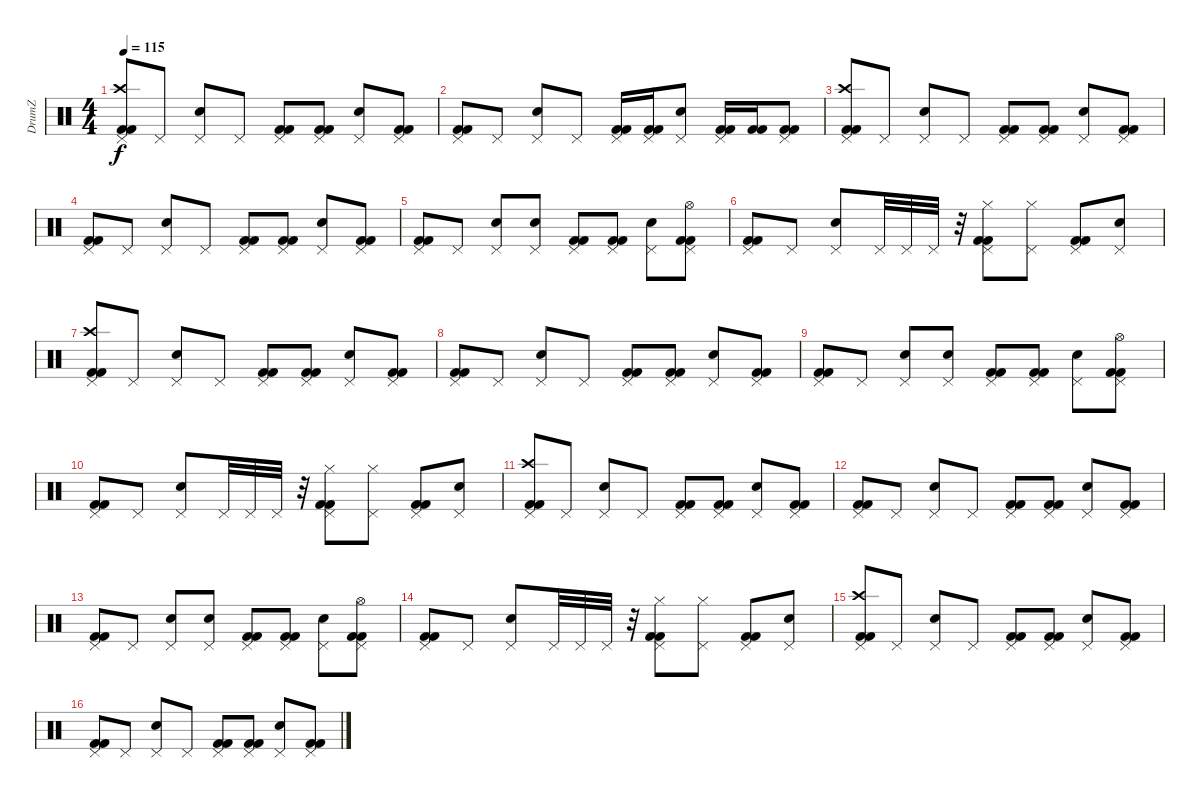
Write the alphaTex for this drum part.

\track ("DrumZ" "DrumZ") {instrument percussion}
\staff {score}
\articulation defaults
\ts (4 4)
\tempo 115
\clef neutral
\ks c
("Pedal Hi-Hat (hit)" "Crash high (hit)" "Kick (hit) 2" "Kick (hit) 2").8{dy f} "Pedal Hi-Hat (hit)".8 ("Pedal Hi-Hat (hit)" "Electric Snare (hit)").8 "Pedal Hi-Hat (hit)".8 ("Pedal Hi-Hat (hit)" "Kick (hit) 2" "Kick (hit) 2").8 ("Pedal Hi-Hat (hit)" "Kick (hit) 2" "Kick (hit) 2").8 ("Pedal Hi-Hat (hit)" "Electric Snare (hit)").8 ("Pedal Hi-Hat (hit)" "Kick (hit) 2" "Kick (hit) 2").8 |
("Pedal Hi-Hat (hit)" "Kick (hit) 2" "Kick (hit) 2").8 "Pedal Hi-Hat (hit)".8 ("Pedal Hi-Hat (hit)" "Electric Snare (hit)").8 "Pedal Hi-Hat (hit)".8 ("Pedal Hi-Hat (hit)" "Kick (hit) 2" "Kick (hit) 2").16 ("Pedal Hi-Hat (hit)" "Kick (hit) 2" "Kick (hit) 2").16 ("Pedal Hi-Hat (hit)" "Electric Snare (hit)").8 ("Pedal Hi-Hat (hit)" "Kick (hit) 2" "Kick (hit) 2").16 ("Kick (hit) 2" "Kick (hit) 2").16 ("Pedal Hi-Hat (hit)" "Kick (hit) 2" "Kick (hit) 2").8 |
("Pedal Hi-Hat (hit)" "Crash high (hit)" "Kick (hit) 2" "Kick (hit) 2").8 "Pedal Hi-Hat (hit)".8 ("Pedal Hi-Hat (hit)" "Electric Snare (hit)").8 "Pedal Hi-Hat (hit)".8 ("Pedal Hi-Hat (hit)" "Kick (hit) 2" "Kick (hit) 2").8 ("Pedal Hi-Hat (hit)" "Kick (hit) 2" "Kick (hit) 2").8 ("Pedal Hi-Hat (hit)" "Electric Snare (hit)").8 ("Pedal Hi-Hat (hit)" "Kick (hit) 2" "Kick (hit) 2").8 |
("Pedal Hi-Hat (hit)" "Kick (hit) 2" "Kick (hit) 2").8 "Pedal Hi-Hat (hit)".8 ("Pedal Hi-Hat (hit)" "Electric Snare (hit)").8 "Pedal Hi-Hat (hit)".8 ("Pedal Hi-Hat (hit)" "Kick (hit) 2" "Kick (hit) 2").8 ("Pedal Hi-Hat (hit)" "Kick (hit) 2" "Kick (hit) 2").8 ("Pedal Hi-Hat (hit)" "Electric Snare (hit)").8 ("Pedal Hi-Hat (hit)" "Kick (hit) 2" "Kick (hit) 2").8 |
("Pedal Hi-Hat (hit)" "Kick (hit) 2" "Kick (hit) 2").8 "Pedal Hi-Hat (hit)".8 ("Pedal Hi-Hat (hit)" "Electric Snare (hit)").8 ("Pedal Hi-Hat (hit)" "Electric Snare (hit)").8 ("Pedal Hi-Hat (hit)" "Kick (hit) 2" "Kick (hit) 2").8 ("Pedal Hi-Hat (hit)" "Kick (hit) 2" "Kick (hit) 2").8 ("Pedal Hi-Hat (hit)" "Electric Snare (hit)").8 ("Pedal Hi-Hat (hit)" "Hi-Hat (open)" "Kick (hit) 2" "Kick (hit) 2").8 |
("Pedal Hi-Hat (hit)" "Kick (hit) 2" "Kick (hit) 2").8 "Pedal Hi-Hat (hit)".8 ("Pedal Hi-Hat (hit)" "Electric Snare (hit)").8 "Pedal Hi-Hat (hit)".32 "Pedal Hi-Hat (hit)".32 "Pedal Hi-Hat (hit)".32 r.32 ("Pedal Hi-Hat (hit)" "Hi-Hat (closed)" "Kick (hit) 2" "Kick (hit) 2").8 ("Pedal Hi-Hat (hit)" "Hi-Hat (closed)").8 ("Pedal Hi-Hat (hit)" "Kick (hit) 2" "Kick (hit) 2").8 ("Pedal Hi-Hat (hit)" "Electric Snare (hit)").8 |
("Pedal Hi-Hat (hit)" "Crash high (hit)" "Kick (hit) 2" "Kick (hit) 2").8 "Pedal Hi-Hat (hit)".8 ("Pedal Hi-Hat (hit)" "Electric Snare (hit)").8 "Pedal Hi-Hat (hit)".8 ("Pedal Hi-Hat (hit)" "Kick (hit) 2" "Kick (hit) 2").8 ("Pedal Hi-Hat (hit)" "Kick (hit) 2" "Kick (hit) 2").8 ("Pedal Hi-Hat (hit)" "Electric Snare (hit)").8 ("Pedal Hi-Hat (hit)" "Kick (hit) 2" "Kick (hit) 2").8 |
("Pedal Hi-Hat (hit)" "Kick (hit) 2" "Kick (hit) 2").8 "Pedal Hi-Hat (hit)".8 ("Pedal Hi-Hat (hit)" "Electric Snare (hit)").8 "Pedal Hi-Hat (hit)".8 ("Pedal Hi-Hat (hit)" "Kick (hit) 2" "Kick (hit) 2").8 ("Pedal Hi-Hat (hit)" "Kick (hit) 2" "Kick (hit) 2").8 ("Pedal Hi-Hat (hit)" "Electric Snare (hit)").8 ("Pedal Hi-Hat (hit)" "Kick (hit) 2" "Kick (hit) 2").8 |
("Pedal Hi-Hat (hit)" "Kick (hit) 2" "Kick (hit) 2").8 "Pedal Hi-Hat (hit)".8 ("Pedal Hi-Hat (hit)" "Electric Snare (hit)").8 ("Pedal Hi-Hat (hit)" "Electric Snare (hit)").8 ("Pedal Hi-Hat (hit)" "Kick (hit) 2" "Kick (hit) 2").8 ("Pedal Hi-Hat (hit)" "Kick (hit) 2" "Kick (hit) 2").8 ("Pedal Hi-Hat (hit)" "Electric Snare (hit)").8 ("Pedal Hi-Hat (hit)" "Hi-Hat (open)" "Kick (hit) 2" "Kick (hit) 2").8 |
("Pedal Hi-Hat (hit)" "Kick (hit) 2" "Kick (hit) 2").8 "Pedal Hi-Hat (hit)".8 ("Pedal Hi-Hat (hit)" "Electric Snare (hit)").8 "Pedal Hi-Hat (hit)".32 "Pedal Hi-Hat (hit)".32 "Pedal Hi-Hat (hit)".32 r.32 ("Pedal Hi-Hat (hit)" "Hi-Hat (closed)" "Kick (hit) 2" "Kick (hit) 2").8 ("Pedal Hi-Hat (hit)" "Hi-Hat (closed)").8 ("Pedal Hi-Hat (hit)" "Kick (hit) 2" "Kick (hit) 2").8 ("Pedal Hi-Hat (hit)" "Electric Snare (hit)").8 |
("Pedal Hi-Hat (hit)" "Crash high (hit)" "Kick (hit) 2" "Kick (hit) 2").8 "Pedal Hi-Hat (hit)".8 ("Pedal Hi-Hat (hit)" "Electric Snare (hit)").8 "Pedal Hi-Hat (hit)".8 ("Pedal Hi-Hat (hit)" "Kick (hit) 2" "Kick (hit) 2").8 ("Pedal Hi-Hat (hit)" "Kick (hit) 2" "Kick (hit) 2").8 ("Pedal Hi-Hat (hit)" "Electric Snare (hit)").8 ("Pedal Hi-Hat (hit)" "Kick (hit) 2" "Kick (hit) 2").8 |
("Pedal Hi-Hat (hit)" "Kick (hit) 2" "Kick (hit) 2").8 "Pedal Hi-Hat (hit)".8 ("Pedal Hi-Hat (hit)" "Electric Snare (hit)").8 "Pedal Hi-Hat (hit)".8 ("Pedal Hi-Hat (hit)" "Kick (hit) 2" "Kick (hit) 2").8 ("Pedal Hi-Hat (hit)" "Kick (hit) 2" "Kick (hit) 2").8 ("Pedal Hi-Hat (hit)" "Electric Snare (hit)").8 ("Pedal Hi-Hat (hit)" "Kick (hit) 2" "Kick (hit) 2").8 |
("Pedal Hi-Hat (hit)" "Kick (hit) 2" "Kick (hit) 2").8 "Pedal Hi-Hat (hit)".8 ("Pedal Hi-Hat (hit)" "Electric Snare (hit)").8 ("Pedal Hi-Hat (hit)" "Electric Snare (hit)").8 ("Pedal Hi-Hat (hit)" "Kick (hit) 2" "Kick (hit) 2").8 ("Pedal Hi-Hat (hit)" "Kick (hit) 2" "Kick (hit) 2").8 ("Pedal Hi-Hat (hit)" "Electric Snare (hit)").8 ("Pedal Hi-Hat (hit)" "Hi-Hat (open)" "Kick (hit) 2" "Kick (hit) 2").8 |
("Pedal Hi-Hat (hit)" "Kick (hit) 2" "Kick (hit) 2").8 "Pedal Hi-Hat (hit)".8 ("Pedal Hi-Hat (hit)" "Electric Snare (hit)").8 "Pedal Hi-Hat (hit)".32 "Pedal Hi-Hat (hit)".32 "Pedal Hi-Hat (hit)".32 r.32 ("Pedal Hi-Hat (hit)" "Hi-Hat (closed)" "Kick (hit) 2" "Kick (hit) 2").8 ("Pedal Hi-Hat (hit)" "Hi-Hat (closed)").8 ("Pedal Hi-Hat (hit)" "Kick (hit) 2" "Kick (hit) 2").8 ("Pedal Hi-Hat (hit)" "Electric Snare (hit)").8 |
("Pedal Hi-Hat (hit)" "Crash high (hit)" "Kick (hit) 2" "Kick (hit) 2").8 "Pedal Hi-Hat (hit)".8 ("Pedal Hi-Hat (hit)" "Electric Snare (hit)").8 "Pedal Hi-Hat (hit)".8 ("Pedal Hi-Hat (hit)" "Kick (hit) 2" "Kick (hit) 2").8 ("Pedal Hi-Hat (hit)" "Kick (hit) 2" "Kick (hit) 2").8 ("Pedal Hi-Hat (hit)" "Electric Snare (hit)").8 ("Pedal Hi-Hat (hit)" "Kick (hit) 2" "Kick (hit) 2").8 |
("Pedal Hi-Hat (hit)" "Kick (hit) 2" "Kick (hit) 2").8 "Pedal Hi-Hat (hit)".8 ("Pedal Hi-Hat (hit)" "Electric Snare (hit)").8 "Pedal Hi-Hat (hit)".8 ("Pedal Hi-Hat (hit)" "Kick (hit) 2" "Kick (hit) 2").8 ("Pedal Hi-Hat (hit)" "Kick (hit) 2" "Kick (hit) 2").8 ("Pedal Hi-Hat (hit)" "Electric Snare (hit)").8 ("Pedal Hi-Hat (hit)" "Kick (hit) 2" "Kick (hit) 2").8
